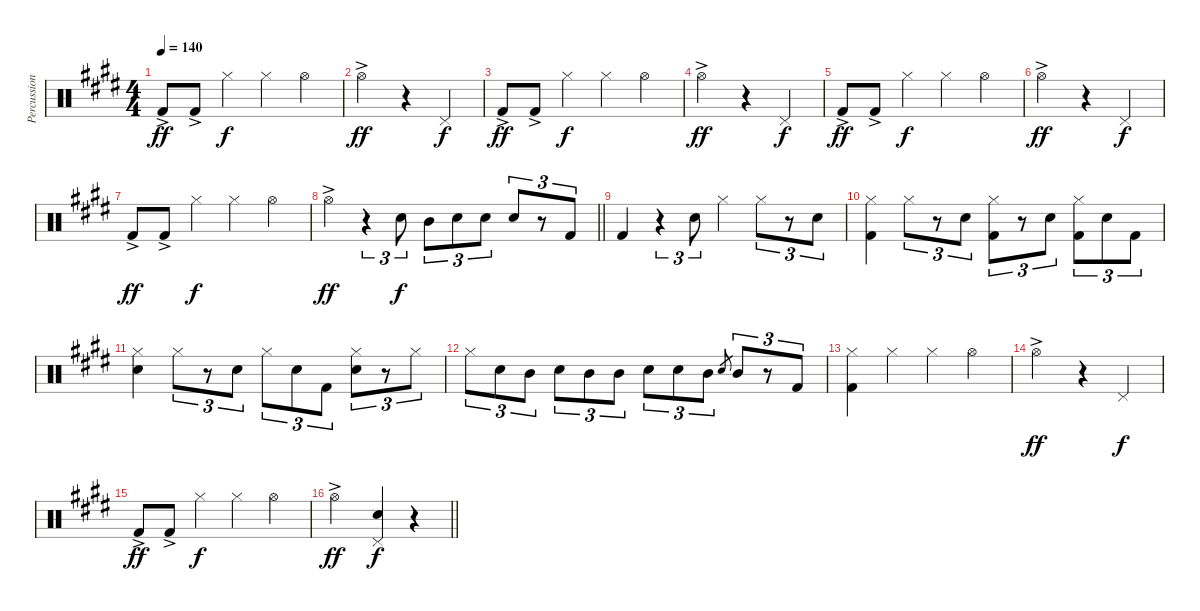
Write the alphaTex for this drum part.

\track ("Percussion" "Percussion") {instrument percussion}
\staff {score}
\articulation defaults
\ts (4 4)
\tempo 140
\clef neutral
\ks e "Kick (hit) 2"{ac}.8{dy ff} "Kick (hit) 2"{ac}.8 "Hi-Hat (closed)".4{dy f} "Hi-Hat (closed)".4 "Hi-Hat (open)".4
|
"Hi-Hat (open)"{ac}.2{dy ff} r.4 "Pedal Hi-Hat (hit)".4{dy f} |
"Kick (hit) 2"{ac}.8{dy ff} "Kick (hit) 2"{ac}.8 "Hi-Hat (closed)".4{dy f} "Hi-Hat (closed)".4 "Hi-Hat (open)".4 |
"Hi-Hat (open)"{ac}.2{dy ff} r.4 "Pedal Hi-Hat (hit)".4{dy f} |
"Kick (hit) 2"{ac}.8{dy ff} "Kick (hit) 2"{ac}.8 "Hi-Hat (closed)".4{dy f} "Hi-Hat (closed)".4 "Hi-Hat (open)".4 |
"Hi-Hat (open)"{ac}.2{dy ff} r.4 "Pedal Hi-Hat (hit)".4{dy f} |
"Kick (hit) 2"{ac}.8{dy ff} "Kick (hit) 2"{ac}.8 "Hi-Hat (closed)".4{dy f} "Hi-Hat (closed)".4 "Hi-Hat (open)".4 |
\barLineRight lightlight "Hi-Hat (open)"{ac}.4{dy ff}
r.4{tu (3 2)} "Snare (hit) 2".8{tu (3 2) dy f} "Mid Tom (hit)".8{tu (3 2)} "Snare (hit) 2".8{tu (3 2)} "Snare (hit) 2".8{tu (3 2)} "Snare (hit) 2".8{tu (3 2)} r.8{tu (3 2)} "Kick (hit) 2".8{tu (3 2)} |
"Kick (hit) 2".4 r.4{tu (3 2)} "Snare (hit) 2".8{tu (3 2)} "Hi-Hat (closed)".4 "Hi-Hat (closed)".8{tu (3 2)} r.8{tu (3 2)} "Snare (hit) 2".8{tu (3 2)} |
("Hi-Hat (closed)" "Kick (hit) 2").4 "Hi-Hat (closed)".8{tu (3 2)} r.8{tu (3 2)} "Snare (hit) 2".8{tu (3 2)} ("Hi-Hat (closed)" "Kick (hit) 2").8{tu (3 2)} r.8{tu (3 2)} "Snare (hit) 2".8{tu (3 2)} ("Hi-Hat (closed)" "Kick (hit) 2").8{tu (3 2)} "Snare (hit) 2".8{tu (3 2)} "Kick (hit) 2".8{tu (3 2)} |
("Hi-Hat (closed)" "Snare (hit) 2").4 "Hi-Hat (closed)".8{tu (3 2)} r.8{tu (3 2)} "Snare (hit) 2".8{tu (3 2)} "Hi-Hat (closed)".8{tu (3 2)} "Snare (hit) 2".8{tu (3 2)} "Kick (hit) 2".8{tu (3 2)} ("Hi-Hat (closed)" "Snare (hit) 2").8{tu (3 2)} r.8{tu (3 2)} "Hi-Hat (closed)".8{tu (3 2)} |
"Hi-Hat (closed)".8{tu (3 2)} "Snare (hit) 2".8{tu (3 2)} "Mid Tom (hit)".8{tu (3 2)} "Snare (hit) 2".8{tu (3 2)} "Mid Tom (hit)".8{tu (3 2)} "Mid Tom (hit)".8{tu (3 2)} "Snare (hit) 2".8{tu (3 2)} "Snare (hit) 2".8{tu (3 2)} "Mid Tom (hit)".8{tu (3 2)} "Snare (hit) 2".8{gr} "Mid Tom (hit)".8{tu (3 2)} r.8{tu (3 2)} "Kick (hit) 2".8{tu (3 2)} |
("Hi-Hat (closed)" "Kick (hit) 2").4 "Hi-Hat (closed)".4 "Hi-Hat (closed)".4 "Hi-Hat (open)".4 |
"Hi-Hat (open)"{ac}.2{dy ff} r.4 "Pedal Hi-Hat (hit)".4{dy f} |
"Kick (hit) 2"{ac}.8{dy ff} "Kick (hit) 2"{ac}.8 "Hi-Hat (closed)".4{dy f} "Hi-Hat (closed)".4 "Hi-Hat (open)".4 |
\barLineRight lightlight "Hi-Hat (open)"{ac}.2{dy ff}
("Snare (hit) 2" "Pedal Hi-Hat (hit)").4{dy f} r.4
